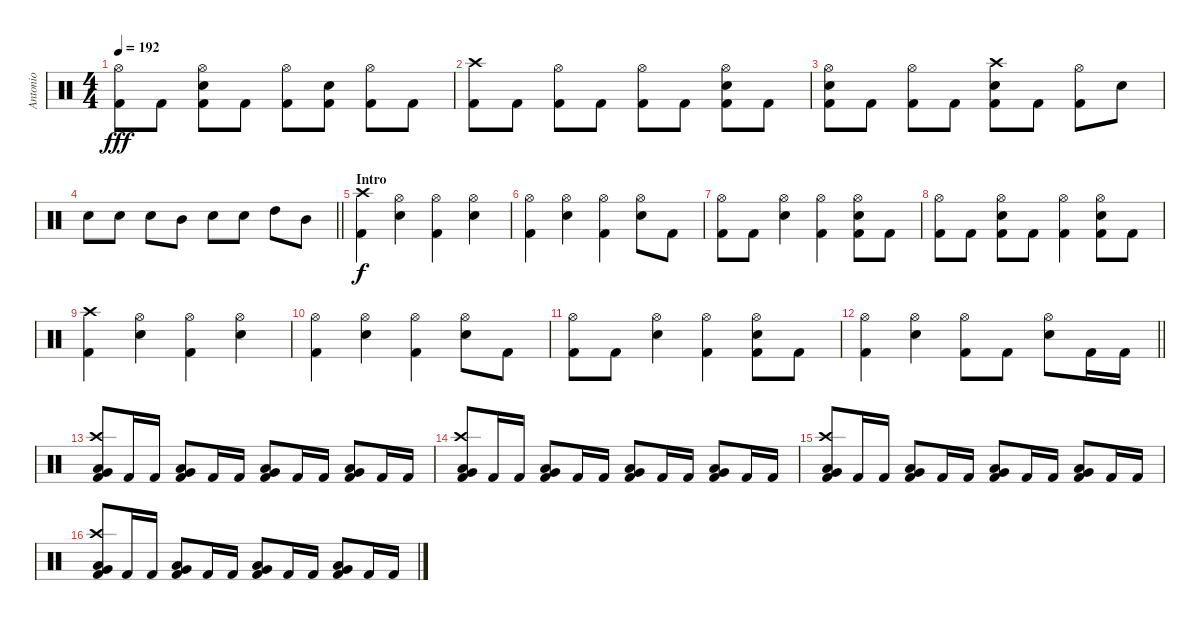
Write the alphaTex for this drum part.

\track ("Antonio" "Antonio") {instrument percussion}
\staff {score}
\articulation defaults
\ts (4 4)
\tempo 192
\clef neutral
\ks c
("Hi-Hat (open)" "Kick (hit) 2").8{dy fff} "Kick (hit) 2".8 ("Hi-Hat (open)" "Electric Snare (hit)" "Kick (hit) 2").8 "Kick (hit) 2".8 ("Hi-Hat (open)" "Kick (hit) 2").8 ("Electric Snare (hit)" "Kick (hit) 2").8 ("Hi-Hat (open)" "Kick (hit) 2").8 "Kick (hit) 2".8 |
("Crash high (hit)" "Kick (hit) 2").8 "Kick (hit) 2".8 ("Hi-Hat (open)" "Kick (hit) 2").8 "Kick (hit) 2".8 ("Hi-Hat (open)" "Kick (hit) 2").8 "Kick (hit) 2".8 ("Hi-Hat (open)" "Electric Snare (hit)" "Kick (hit) 2").8 "Kick (hit) 2".8 |
("Hi-Hat (open)" "Electric Snare (hit)" "Kick (hit) 2").8 "Kick (hit) 2".8 ("Hi-Hat (open)" "Kick (hit) 2").8 "Kick (hit) 2".8 ("Crash high (hit)" "Electric Snare (hit)" "Kick (hit) 2").8 "Kick (hit) 2".8 ("Hi-Hat (open)" "Kick (hit) 2").8 "Electric Snare (hit)".8 |
\barLineRight lightlight "Electric Snare (hit)".8 "Electric Snare (hit)".8 "Electric Snare (hit)".8 "Mid Tom (hit)".8 "Electric Snare (hit)".8 "Electric Snare (hit)".8 "High Tom (hit)".8 "Mid Tom (hit)".8
|
\section ("" "Intro")
("Crash high (hit)" "Kick (hit) 2").4{dy f} ("Hi-Hat (open)" "Electric Snare (hit)").4 ("Hi-Hat (open)" "Kick (hit) 2").4 ("Hi-Hat (open)" "Electric Snare (hit)").4 |
("Hi-Hat (open)" "Kick (hit) 2").4 ("Hi-Hat (open)" "Electric Snare (hit)").4 ("Hi-Hat (open)" "Kick (hit) 2").4 ("Hi-Hat (open)" "Electric Snare (hit)").8 "Kick (hit) 2".8 |
("Hi-Hat (open)" "Kick (hit) 2").8 "Kick (hit) 2".8 ("Hi-Hat (open)" "Electric Snare (hit)").4 ("Hi-Hat (open)" "Kick (hit) 2").4 ("Hi-Hat (open)" "Electric Snare (hit)" "Kick (hit) 2").8 "Kick (hit) 2".8 |
("Hi-Hat (open)" "Kick (hit) 2").8 "Kick (hit) 2".8 ("Hi-Hat (open)" "Electric Snare (hit)" "Kick (hit) 2").8 "Kick (hit) 2".8 ("Hi-Hat (open)" "Kick (hit) 2").4 ("Hi-Hat (open)" "Electric Snare (hit)" "Kick (hit) 2").8 "Kick (hit) 2".8 |
("Crash high (hit)" "Kick (hit) 2").4 ("Hi-Hat (open)" "Electric Snare (hit)").4 ("Hi-Hat (open)" "Kick (hit) 2").4 ("Hi-Hat (open)" "Electric Snare (hit)").4 |
("Hi-Hat (open)" "Kick (hit) 2").4 ("Hi-Hat (open)" "Electric Snare (hit)").4 ("Hi-Hat (open)" "Kick (hit) 2").4 ("Hi-Hat (open)" "Electric Snare (hit)").8 "Kick (hit) 2".8 |
("Hi-Hat (open)" "Kick (hit) 2").8 "Kick (hit) 2".8 ("Hi-Hat (open)" "Electric Snare (hit)").4 ("Hi-Hat (open)" "Kick (hit) 2").4 ("Hi-Hat (open)" "Electric Snare (hit)" "Kick (hit) 2").8 "Kick (hit) 2".8 |
\barLineRight lightlight
("Hi-Hat (open)" "Kick (hit) 2").4 ("Hi-Hat (open)" "Electric Snare (hit)").4 ("Hi-Hat (open)" "Kick (hit) 2").8 "Kick (hit) 2".8 ("Hi-Hat (open)" "Electric Snare (hit)").8 "Kick (hit) 2".16 "Kick (hit) 2".16 |
("Crash high (hit)" "Low Tom (hit)" "Very Low Tom (hit)" "Kick (hit) 2").8 "Kick (hit) 2".16 "Kick (hit) 2".16 ("Low Tom (hit)" "Very Low Tom (hit)" "Kick (hit) 2").8 "Kick (hit) 2".16 "Kick (hit) 2".16 ("Low Tom (hit)" "Very Low Tom (hit)" "Kick (hit) 2").8 "Kick (hit) 2".16 "Kick (hit) 2".16 ("Low Tom (hit)" "Very Low Tom (hit)" "Kick (hit) 2").8 "Kick (hit) 2".16 "Kick (hit) 2".16 |
("Crash high (hit)" "Low Tom (hit)" "Very Low Tom (hit)" "Kick (hit) 2").8 "Kick (hit) 2".16 "Kick (hit) 2".16 ("Low Tom (hit)" "Very Low Tom (hit)" "Kick (hit) 2").8 "Kick (hit) 2".16 "Kick (hit) 2".16 ("Low Tom (hit)" "Very Low Tom (hit)" "Kick (hit) 2").8 "Kick (hit) 2".16 "Kick (hit) 2".16 ("Low Tom (hit)" "Very Low Tom (hit)" "Kick (hit) 2").8 "Kick (hit) 2".16 "Kick (hit) 2".16 |
("Crash high (hit)" "Low Tom (hit)" "Very Low Tom (hit)" "Kick (hit) 2").8 "Kick (hit) 2".16 "Kick (hit) 2".16 ("Low Tom (hit)" "Very Low Tom (hit)" "Kick (hit) 2").8 "Kick (hit) 2".16 "Kick (hit) 2".16 ("Low Tom (hit)" "Very Low Tom (hit)" "Kick (hit) 2").8 "Kick (hit) 2".16 "Kick (hit) 2".16 ("Low Tom (hit)" "Very Low Tom (hit)" "Kick (hit) 2").8 "Kick (hit) 2".16 "Kick (hit) 2".16 |
("Crash high (hit)" "Low Tom (hit)" "Very Low Tom (hit)" "Kick (hit) 2").8 "Kick (hit) 2".16 "Kick (hit) 2".16 ("Low Tom (hit)" "Very Low Tom (hit)" "Kick (hit) 2").8 "Kick (hit) 2".16 "Kick (hit) 2".16 ("Low Tom (hit)" "Very Low Tom (hit)" "Kick (hit) 2").8 "Kick (hit) 2".16 "Kick (hit) 2".16 ("Low Tom (hit)" "Very Low Tom (hit)" "Kick (hit) 2").8 "Kick (hit) 2".16 "Kick (hit) 2".16
